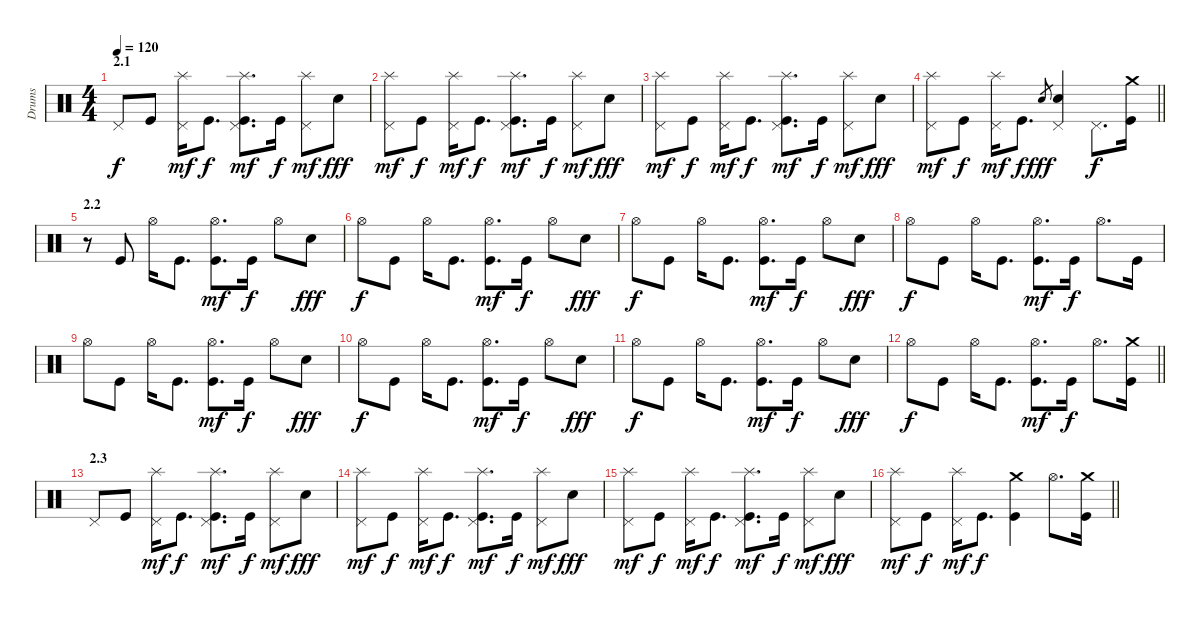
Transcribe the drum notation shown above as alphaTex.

\track ("Drums" "Drums") {instrument percussion}
\staff {score}
\articulation defaults
\ts (4 4)
\section ("" "2.1")
\tempo 120
\clef neutral
\ks c "Pedal Hi-Hat (hit)".8{dy f} "Kick (hit)".8
("Splash (hit)" "Pedal Hi-Hat (hit)").16{dy mf} "Kick (hit)".8{d dy f} ("Splash (hit)" "Pedal Hi-Hat (hit)" "Kick (hit)").8{d dy mf} "Kick (hit)".16{dy f} ("Splash (hit)" "Pedal Hi-Hat (hit)").8{dy mf} "Snare (hit) 2".8{dy fff} |
("Splash (hit)" "Pedal Hi-Hat (hit)").8{dy mf} "Kick (hit)".8{dy f} ("Splash (hit)" "Pedal Hi-Hat (hit)").16{dy mf} "Kick (hit)".8{d dy f} ("Splash (hit)" "Pedal Hi-Hat (hit)" "Kick (hit)").8{d dy mf} "Kick (hit)".16{dy f} ("Splash (hit)" "Pedal Hi-Hat (hit)").8{dy mf} "Snare (hit) 2".8{dy fff} |
("Splash (hit)" "Pedal Hi-Hat (hit)").8{dy mf} "Kick (hit)".8{dy f} ("Splash (hit)" "Pedal Hi-Hat (hit)").16{dy mf} "Kick (hit)".8{d dy f} ("Splash (hit)" "Pedal Hi-Hat (hit)" "Kick (hit)").8{d dy mf} "Kick (hit)".16{dy f} ("Splash (hit)" "Pedal Hi-Hat (hit)").8{dy mf} "Snare (hit) 2".8{dy fff} |
\barLineRight lightlight
("Splash (hit)" "Pedal Hi-Hat (hit)").8{dy mf} "Kick (hit)".8{dy f} ("Splash (hit)" "Pedal Hi-Hat (hit)").16{dy mf} "Kick (hit)".8{d dy f} "Snare (hit) 2".8{gr dy fff} ("Pedal Hi-Hat (hit)" "Snare (hit) 2").4 "Pedal Hi-Hat (hit)".8{d dy f} ("Crash medium (hit)" "Kick (hit)").16 |
\section ("" "2.2")
r.8 "Kick (hit)".8 "Hi-Hat (open)".16 "Kick (hit)".8{d} ("Hi-Hat (open)" "Kick (hit)").8{d dy mf} "Kick (hit)".16{dy f} "Hi-Hat (open)".8 "Snare (hit) 2".8{dy fff} |
"Hi-Hat (open)".8{dy f} "Kick (hit)".8 "Hi-Hat (open)".16 "Kick (hit)".8{d} ("Hi-Hat (open)" "Kick (hit)").8{d dy mf} "Kick (hit)".16{dy f} "Hi-Hat (open)".8 "Snare (hit) 2".8{dy fff} |
"Hi-Hat (open)".8{dy f} "Kick (hit)".8 "Hi-Hat (open)".16 "Kick (hit)".8{d} ("Hi-Hat (open)" "Kick (hit)").8{d dy mf} "Kick (hit)".16{dy f} "Hi-Hat (open)".8 "Snare (hit) 2".8{dy fff} |
"Hi-Hat (open)".8{dy f} "Kick (hit)".8 "Hi-Hat (open)".16 "Kick (hit)".8{d} ("Hi-Hat (open)" "Kick (hit)").8{d dy mf} "Kick (hit)".16{dy f} "Hi-Hat (open)".8{d} "Kick (hit)".16 |
"Hi-Hat (open)".8 "Kick (hit)".8 "Hi-Hat (open)".16 "Kick (hit)".8{d} ("Hi-Hat (open)" "Kick (hit)").8{d dy mf} "Kick (hit)".16{dy f} "Hi-Hat (open)".8 "Snare (hit) 2".8{dy fff} |
"Hi-Hat (open)".8{dy f} "Kick (hit)".8 "Hi-Hat (open)".16 "Kick (hit)".8{d} ("Hi-Hat (open)" "Kick (hit)").8{d dy mf} "Kick (hit)".16{dy f} "Hi-Hat (open)".8 "Snare (hit) 2".8{dy fff} |
"Hi-Hat (open)".8{dy f} "Kick (hit)".8 "Hi-Hat (open)".16 "Kick (hit)".8{d} ("Hi-Hat (open)" "Kick (hit)").8{d dy mf} "Kick (hit)".16{dy f} "Hi-Hat (open)".8 "Snare (hit) 2".8{dy fff} |
\barLineRight lightlight "Hi-Hat (open)".8{dy f} "Kick (hit)".8 "Hi-Hat (open)".16 "Kick (hit)".8{d}
("Hi-Hat (open)" "Kick (hit)").8{d dy mf} "Kick (hit)".16{dy f} "Hi-Hat (open)".8{d} ("Crash medium (hit)" "Kick (hit)").16 |
\section ("" "2.3")
"Pedal Hi-Hat (hit)".8 "Kick (hit)".8 ("Splash (hit)" "Pedal Hi-Hat (hit)").16{dy mf} "Kick (hit)".8{d dy f} ("Splash (hit)" "Pedal Hi-Hat (hit)" "Kick (hit)").8{d dy mf} "Kick (hit)".16{dy f} ("Splash (hit)" "Pedal Hi-Hat (hit)").8{dy mf} "Snare (hit) 2".8{dy fff} |
("Splash (hit)" "Pedal Hi-Hat (hit)").8{dy mf} "Kick (hit)".8{dy f} ("Splash (hit)" "Pedal Hi-Hat (hit)").16{dy mf} "Kick (hit)".8{d dy f} ("Splash (hit)" "Pedal Hi-Hat (hit)" "Kick (hit)").8{d dy mf} "Kick (hit)".16{dy f} ("Splash (hit)" "Pedal Hi-Hat (hit)").8{dy mf} "Snare (hit) 2".8{dy fff} |
("Splash (hit)" "Pedal Hi-Hat (hit)").8{dy mf} "Kick (hit)".8{dy f} ("Splash (hit)" "Pedal Hi-Hat (hit)").16{dy mf} "Kick (hit)".8{d dy f} ("Splash (hit)" "Pedal Hi-Hat (hit)" "Kick (hit)").8{d dy mf} "Kick (hit)".16{dy f} ("Splash (hit)" "Pedal Hi-Hat (hit)").8{dy mf} "Snare (hit) 2".8{dy fff} |
\barLineRight lightlight
("Splash (hit)" "Pedal Hi-Hat (hit)").8{dy mf} "Kick (hit)".8{dy f} ("Splash (hit)" "Pedal Hi-Hat (hit)").16{dy mf} "Kick (hit)".8{d dy f} ("Crash medium (hit)" "Kick (hit)").4 "Hi-Hat (open)".8{d} ("Crash medium (hit)" "Kick (hit)").16
